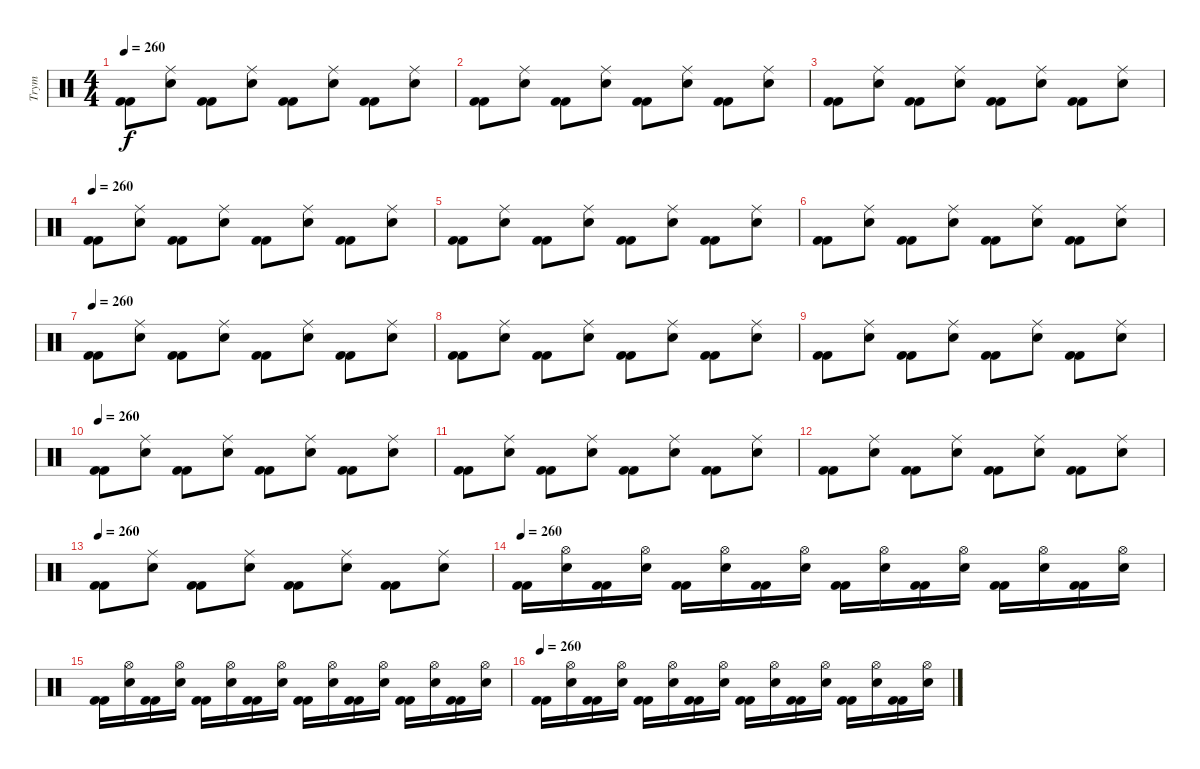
\track ("Trym" "Trym") {instrument percussion}
\staff {score}
\articulation defaults
\ts (4 4)
\tempo 260
\clef neutral
\ks c
("Kick (hit) 2" "Kick (hit) 2").8{dy f} ("Ride (middle)" "Snare (hit) 2").8 ("Kick (hit) 2" "Kick (hit) 2").8 ("Ride (middle)" "Snare (hit) 2").8 ("Kick (hit) 2" "Kick (hit) 2").8 ("Ride (middle)" "Snare (hit) 2").8 ("Kick (hit) 2" "Kick (hit) 2").8 ("Ride (middle)" "Snare (hit) 2").8 |
("Kick (hit) 2" "Kick (hit) 2").8 ("Ride (middle)" "Snare (hit) 2").8 ("Kick (hit) 2" "Kick (hit) 2").8 ("Ride (middle)" "Snare (hit) 2").8 ("Kick (hit) 2" "Kick (hit) 2").8 ("Ride (middle)" "Snare (hit) 2").8 ("Kick (hit) 2" "Kick (hit) 2").8 ("Ride (middle)" "Snare (hit) 2").8 |
("Kick (hit) 2" "Kick (hit) 2").8 ("Ride (middle)" "Snare (hit) 2").8 ("Kick (hit) 2" "Kick (hit) 2").8 ("Ride (middle)" "Snare (hit) 2").8 ("Kick (hit) 2" "Kick (hit) 2").8 ("Ride (middle)" "Snare (hit) 2").8 ("Kick (hit) 2" "Kick (hit) 2").8 ("Ride (middle)" "Snare (hit) 2").8 |
\tempo 260
("Kick (hit) 2" "Kick (hit) 2").8 ("Ride (middle)" "Snare (hit) 2").8 ("Kick (hit) 2" "Kick (hit) 2").8 ("Ride (middle)" "Snare (hit) 2").8 ("Kick (hit) 2" "Kick (hit) 2").8 ("Ride (middle)" "Snare (hit) 2").8 ("Kick (hit) 2" "Kick (hit) 2").8 ("Ride (middle)" "Snare (hit) 2").8 |
("Kick (hit) 2" "Kick (hit) 2").8 ("Ride (middle)" "Snare (hit) 2").8 ("Kick (hit) 2" "Kick (hit) 2").8 ("Ride (middle)" "Snare (hit) 2").8 ("Kick (hit) 2" "Kick (hit) 2").8 ("Ride (middle)" "Snare (hit) 2").8 ("Kick (hit) 2" "Kick (hit) 2").8 ("Ride (middle)" "Snare (hit) 2").8 |
("Kick (hit) 2" "Kick (hit) 2").8 ("Ride (middle)" "Snare (hit) 2").8 ("Kick (hit) 2" "Kick (hit) 2").8 ("Ride (middle)" "Snare (hit) 2").8 ("Kick (hit) 2" "Kick (hit) 2").8 ("Ride (middle)" "Snare (hit) 2").8 ("Kick (hit) 2" "Kick (hit) 2").8 ("Ride (middle)" "Snare (hit) 2").8 |
\tempo 260
("Kick (hit) 2" "Kick (hit) 2").8 ("Ride (middle)" "Snare (hit) 2").8 ("Kick (hit) 2" "Kick (hit) 2").8 ("Ride (middle)" "Snare (hit) 2").8 ("Kick (hit) 2" "Kick (hit) 2").8 ("Ride (middle)" "Snare (hit) 2").8 ("Kick (hit) 2" "Kick (hit) 2").8 ("Ride (middle)" "Snare (hit) 2").8 |
("Kick (hit) 2" "Kick (hit) 2").8 ("Ride (middle)" "Snare (hit) 2").8 ("Kick (hit) 2" "Kick (hit) 2").8 ("Ride (middle)" "Snare (hit) 2").8 ("Kick (hit) 2" "Kick (hit) 2").8 ("Ride (middle)" "Snare (hit) 2").8 ("Kick (hit) 2" "Kick (hit) 2").8 ("Ride (middle)" "Snare (hit) 2").8 |
("Kick (hit) 2" "Kick (hit) 2").8 ("Ride (middle)" "Snare (hit) 2").8 ("Kick (hit) 2" "Kick (hit) 2").8 ("Ride (middle)" "Snare (hit) 2").8 ("Kick (hit) 2" "Kick (hit) 2").8 ("Ride (middle)" "Snare (hit) 2").8 ("Kick (hit) 2" "Kick (hit) 2").8 ("Ride (middle)" "Snare (hit) 2").8 |
\tempo 260
("Kick (hit) 2" "Kick (hit) 2").8 ("Ride (middle)" "Snare (hit) 2").8 ("Kick (hit) 2" "Kick (hit) 2").8 ("Ride (middle)" "Snare (hit) 2").8 ("Kick (hit) 2" "Kick (hit) 2").8 ("Ride (middle)" "Snare (hit) 2").8 ("Kick (hit) 2" "Kick (hit) 2").8 ("Ride (middle)" "Snare (hit) 2").8 |
("Kick (hit) 2" "Kick (hit) 2").8 ("Ride (middle)" "Snare (hit) 2").8 ("Kick (hit) 2" "Kick (hit) 2").8 ("Ride (middle)" "Snare (hit) 2").8 ("Kick (hit) 2" "Kick (hit) 2").8 ("Ride (middle)" "Snare (hit) 2").8 ("Kick (hit) 2" "Kick (hit) 2").8 ("Ride (middle)" "Snare (hit) 2").8 |
("Kick (hit) 2" "Kick (hit) 2").8 ("Ride (middle)" "Snare (hit) 2").8 ("Kick (hit) 2" "Kick (hit) 2").8 ("Ride (middle)" "Snare (hit) 2").8 ("Kick (hit) 2" "Kick (hit) 2").8 ("Ride (middle)" "Snare (hit) 2").8 ("Kick (hit) 2" "Kick (hit) 2").8 ("Ride (middle)" "Snare (hit) 2").8 |
\tempo 260
("Kick (hit) 2" "Kick (hit) 2").8 ("Ride (middle)" "Snare (hit) 2").8 ("Kick (hit) 2" "Kick (hit) 2").8 ("Ride (middle)" "Snare (hit) 2").8 ("Kick (hit) 2" "Kick (hit) 2").8 ("Ride (middle)" "Snare (hit) 2").8 ("Kick (hit) 2" "Kick (hit) 2").8 ("Ride (middle)" "Snare (hit) 2").8 |
\tempo 260
("Kick (hit) 2" "Kick (hit) 2").16 ("Hi-Hat (open)" "Snare (hit) 2").16 ("Kick (hit) 2" "Kick (hit) 2").16 ("Hi-Hat (open)" "Snare (hit) 2").16 ("Kick (hit) 2" "Kick (hit) 2").16 ("Hi-Hat (open)" "Snare (hit) 2").16 ("Kick (hit) 2" "Kick (hit) 2").16 ("Hi-Hat (open)" "Snare (hit) 2").16 ("Kick (hit) 2" "Kick (hit) 2").16 ("Hi-Hat (open)" "Snare (hit) 2").16 ("Kick (hit) 2" "Kick (hit) 2").16 ("Hi-Hat (open)" "Snare (hit) 2").16 ("Kick (hit) 2" "Kick (hit) 2").16 ("Hi-Hat (open)" "Snare (hit) 2").16 ("Kick (hit) 2" "Kick (hit) 2").16 ("Hi-Hat (open)" "Snare (hit) 2").16 |
("Kick (hit) 2" "Kick (hit) 2").16 ("Hi-Hat (open)" "Snare (hit) 2").16 ("Kick (hit) 2" "Kick (hit) 2").16 ("Hi-Hat (open)" "Snare (hit) 2").16 ("Kick (hit) 2" "Kick (hit) 2").16 ("Hi-Hat (open)" "Snare (hit) 2").16 ("Kick (hit) 2" "Kick (hit) 2").16 ("Hi-Hat (open)" "Snare (hit) 2").16 ("Kick (hit) 2" "Kick (hit) 2").16 ("Hi-Hat (open)" "Snare (hit) 2").16 ("Kick (hit) 2" "Kick (hit) 2").16 ("Hi-Hat (open)" "Snare (hit) 2").16 ("Kick (hit) 2" "Kick (hit) 2").16 ("Hi-Hat (open)" "Snare (hit) 2").16 ("Kick (hit) 2" "Kick (hit) 2").16 ("Hi-Hat (open)" "Snare (hit) 2").16 |
\tempo 260
("Kick (hit) 2" "Kick (hit) 2").16 ("Hi-Hat (open)" "Snare (hit) 2").16 ("Kick (hit) 2" "Kick (hit) 2").16 ("Hi-Hat (open)" "Snare (hit) 2").16 ("Kick (hit) 2" "Kick (hit) 2").16 ("Hi-Hat (open)" "Snare (hit) 2").16 ("Kick (hit) 2" "Kick (hit) 2").16 ("Hi-Hat (open)" "Snare (hit) 2").16 ("Kick (hit) 2" "Kick (hit) 2").16 ("Hi-Hat (open)" "Snare (hit) 2").16 ("Kick (hit) 2" "Kick (hit) 2").16 ("Hi-Hat (open)" "Snare (hit) 2").16 ("Kick (hit) 2" "Kick (hit) 2").16 ("Hi-Hat (open)" "Snare (hit) 2").16 ("Kick (hit) 2" "Kick (hit) 2").16 ("Hi-Hat (open)" "Snare (hit) 2").16
